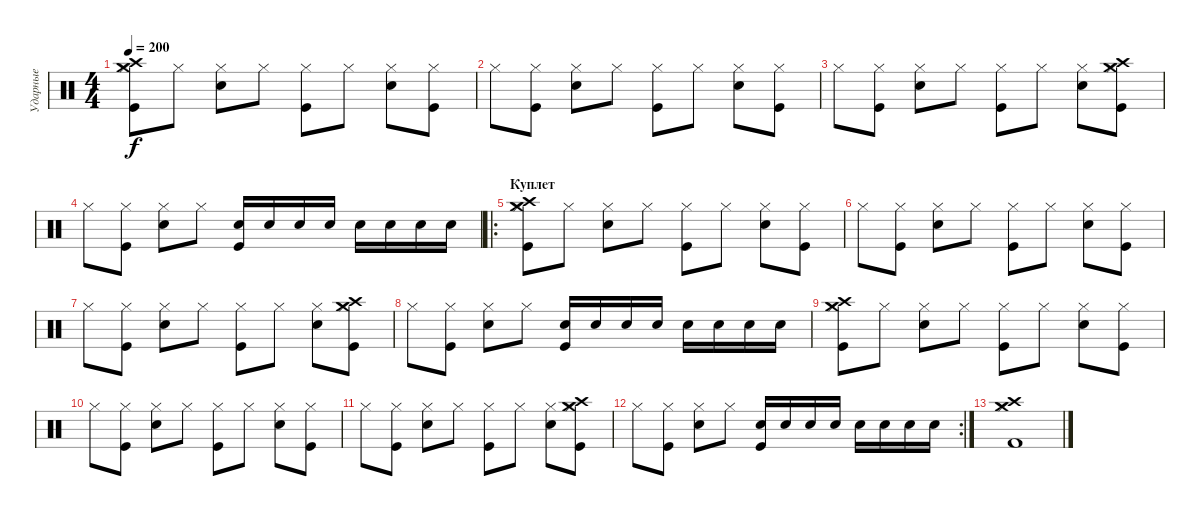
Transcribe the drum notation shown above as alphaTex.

\track ("Ударные" "Ударные") {instrument percussion}
\staff {score}
\articulation defaults
\ts (4 4)
\tempo 200
\clef neutral
\ks c
("Crash high (hit)" "Crash medium (hit)" "Hi-Hat (closed)" "Kick (hit)").8{dy f} "Hi-Hat (closed)".8 ("Electric Snare (hit)" "Hi-Hat (closed)").8 "Hi-Hat (closed)".8 ("Hi-Hat (closed)" "Kick (hit)").8 "Hi-Hat (closed)".8 ("Hi-Hat (closed)" "Electric Snare (hit)").8 ("Kick (hit)" "Hi-Hat (closed)").8 |
"Hi-Hat (closed)".8 ("Kick (hit)" "Hi-Hat (closed)").8 ("Electric Snare (hit)" "Hi-Hat (closed)").8 "Hi-Hat (closed)".8 ("Hi-Hat (closed)" "Kick (hit)").8 "Hi-Hat (closed)".8 ("Hi-Hat (closed)" "Electric Snare (hit)").8 ("Kick (hit)" "Hi-Hat (closed)").8 |
"Hi-Hat (closed)".8 ("Kick (hit)" "Hi-Hat (closed)").8 ("Electric Snare (hit)" "Hi-Hat (closed)").8 "Hi-Hat (closed)".8 ("Hi-Hat (closed)" "Kick (hit)").8 "Hi-Hat (closed)".8 ("Hi-Hat (closed)" "Electric Snare (hit)").8 ("Crash medium (hit)" "Hi-Hat (closed)" "Kick (hit)" "Crash high (hit)").8 |
"Hi-Hat (closed)".8 ("Kick (hit)" "Hi-Hat (closed)").8 ("Electric Snare (hit)" "Hi-Hat (closed)").8 "Hi-Hat (closed)".8 ("Electric Snare (hit)" "Kick (hit)").16 "Electric Snare (hit)".16 "Electric Snare (hit)".16 "Electric Snare (hit)".16 "Electric Snare (hit)".16 "Electric Snare (hit)".16 "Electric Snare (hit)".16 "Electric Snare (hit)".16 |
\ro
\section ("" "Куплет")
("Crash high (hit)" "Crash medium (hit)" "Hi-Hat (closed)" "Kick (hit)").8 "Hi-Hat (closed)".8 ("Electric Snare (hit)" "Hi-Hat (closed)").8 "Hi-Hat (closed)".8 ("Hi-Hat (closed)" "Kick (hit)").8 "Hi-Hat (closed)".8 ("Hi-Hat (closed)" "Electric Snare (hit)").8 ("Kick (hit)" "Hi-Hat (closed)").8 |
"Hi-Hat (closed)".8 ("Kick (hit)" "Hi-Hat (closed)").8 ("Electric Snare (hit)" "Hi-Hat (closed)").8 "Hi-Hat (closed)".8 ("Hi-Hat (closed)" "Kick (hit)").8 "Hi-Hat (closed)".8 ("Hi-Hat (closed)" "Electric Snare (hit)").8 ("Kick (hit)" "Hi-Hat (closed)").8 |
"Hi-Hat (closed)".8 ("Kick (hit)" "Hi-Hat (closed)").8 ("Electric Snare (hit)" "Hi-Hat (closed)").8 "Hi-Hat (closed)".8 ("Hi-Hat (closed)" "Kick (hit)").8 "Hi-Hat (closed)".8 ("Hi-Hat (closed)" "Electric Snare (hit)").8 ("Crash medium (hit)" "Hi-Hat (closed)" "Kick (hit)" "Crash high (hit)").8 |
"Hi-Hat (closed)".8 ("Kick (hit)" "Hi-Hat (closed)").8 ("Electric Snare (hit)" "Hi-Hat (closed)").8 "Hi-Hat (closed)".8 ("Electric Snare (hit)" "Kick (hit)").16 "Electric Snare (hit)".16 "Electric Snare (hit)".16 "Electric Snare (hit)".16 "Electric Snare (hit)".16 "Electric Snare (hit)".16 "Electric Snare (hit)".16 "Electric Snare (hit)".16 |
("Crash high (hit)" "Crash medium (hit)" "Hi-Hat (closed)" "Kick (hit)").8 "Hi-Hat (closed)".8 ("Electric Snare (hit)" "Hi-Hat (closed)").8 "Hi-Hat (closed)".8 ("Hi-Hat (closed)" "Kick (hit)").8 "Hi-Hat (closed)".8 ("Hi-Hat (closed)" "Electric Snare (hit)").8 ("Kick (hit)" "Hi-Hat (closed)").8 |
"Hi-Hat (closed)".8 ("Kick (hit)" "Hi-Hat (closed)").8 ("Electric Snare (hit)" "Hi-Hat (closed)").8 "Hi-Hat (closed)".8 ("Hi-Hat (closed)" "Kick (hit)").8 "Hi-Hat (closed)".8 ("Hi-Hat (closed)" "Electric Snare (hit)").8 ("Kick (hit)" "Hi-Hat (closed)").8 |
"Hi-Hat (closed)".8 ("Kick (hit)" "Hi-Hat (closed)").8 ("Electric Snare (hit)" "Hi-Hat (closed)").8 "Hi-Hat (closed)".8 ("Hi-Hat (closed)" "Kick (hit)").8 "Hi-Hat (closed)".8 ("Hi-Hat (closed)" "Electric Snare (hit)").8 ("Crash medium (hit)" "Hi-Hat (closed)" "Kick (hit)" "Crash high (hit)").8 |
\rc 2 "Hi-Hat (closed)".8
("Kick (hit)" "Hi-Hat (closed)").8 ("Electric Snare (hit)" "Hi-Hat (closed)").8 "Hi-Hat (closed)".8 ("Electric Snare (hit)" "Kick (hit)").16 "Electric Snare (hit)".16 "Electric Snare (hit)".16 "Electric Snare (hit)".16 "Electric Snare (hit)".16 "Electric Snare (hit)".16 "Electric Snare (hit)".16 "Electric Snare (hit)".16 |
("Kick (hit) 2" "Crash medium (hit)" "Hi-Hat (closed)" "Crash high (hit)").1
